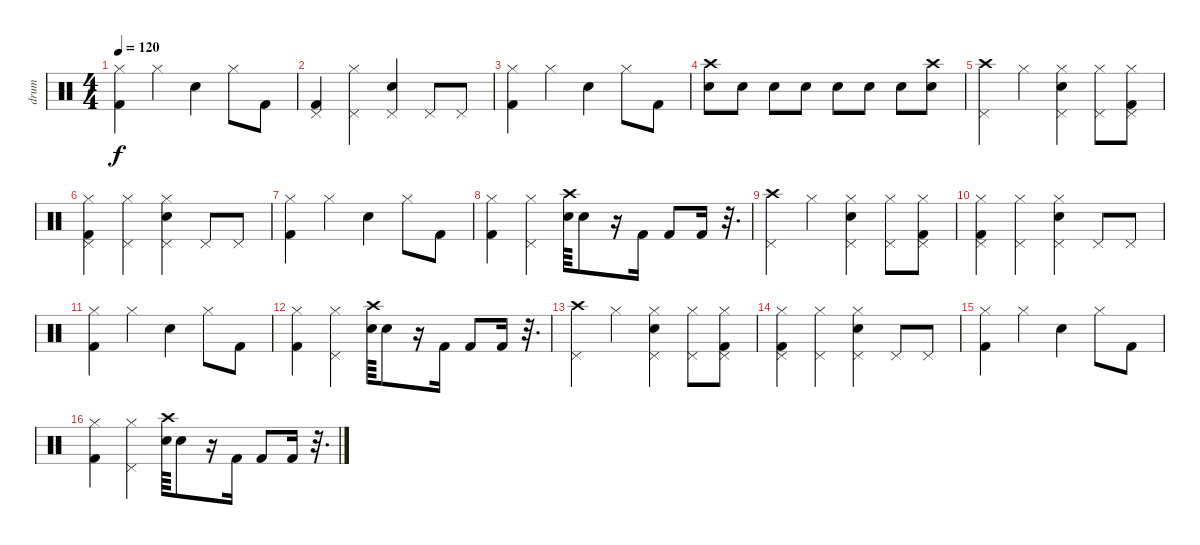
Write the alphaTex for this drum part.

\track ("drum" "drum") {instrument percussion}
\staff {score}
\articulation defaults
\ts (4 4)
\tempo 120
\clef neutral
\ks c
("Hi-Hat (closed)" "Kick (hit) 2").4{dy f} "Hi-Hat (closed)".4 "Snare (hit) 2".4 "Hi-Hat (closed)".8 "Kick (hit) 2".8 |
("Kick (hit) 2" "Pedal Hi-Hat (hit)").4 ("Hi-Hat (closed)" "Pedal Hi-Hat (hit)").4 ("Snare (hit) 2" "Pedal Hi-Hat (hit)").4 "Pedal Hi-Hat (hit)".8 "Pedal Hi-Hat (hit)".8 |
("Hi-Hat (closed)" "Kick (hit) 2").4 "Hi-Hat (closed)".4 "Snare (hit) 2".4 "Hi-Hat (closed)".8 "Kick (hit) 2".8 |
("Crash high (hit)" "Electric Snare (hit)").8 "Electric Snare (hit)".8 "Electric Snare (hit)".8 "Electric Snare (hit)".8 "Electric Snare (hit)".8 "Electric Snare (hit)".8 "Electric Snare (hit)".8 ("Crash high (hit)" "Electric Snare (hit)").8 |
("Crash high (hit)" "Pedal Hi-Hat (hit)").4 "Hi-Hat (closed)".4 ("Snare (hit) 2" "Pedal Hi-Hat (hit)" "Hi-Hat (closed)").4 ("Hi-Hat (closed)" "Pedal Hi-Hat (hit)").8 ("Kick (hit) 2" "Pedal Hi-Hat (hit)" "Hi-Hat (closed)").8 |
("Kick (hit) 2" "Pedal Hi-Hat (hit)" "Hi-Hat (closed)").4 ("Hi-Hat (closed)" "Pedal Hi-Hat (hit)").4 ("Snare (hit) 2" "Pedal Hi-Hat (hit)" "Hi-Hat (closed)").4 "Pedal Hi-Hat (hit)".8 "Pedal Hi-Hat (hit)".8 |
("Hi-Hat (closed)" "Kick (hit) 2").4 "Hi-Hat (closed)".4 "Snare (hit) 2".4 "Hi-Hat (closed)".8 "Kick (hit) 2".8 |
("Hi-Hat (closed)" "Kick (hit) 2").4 ("Hi-Hat (closed)" "Pedal Hi-Hat (hit)").4 ("Crash high (hit)" "Snare (hit) 2").64 "Snare (hit) 2".8 r.16 "Kick (hit) 2".16 "Kick (hit) 2".8 "Kick (hit) 2".16 r.32{d} |
("Crash high (hit)" "Pedal Hi-Hat (hit)").4 "Hi-Hat (closed)".4 ("Snare (hit) 2" "Pedal Hi-Hat (hit)" "Hi-Hat (closed)").4 ("Hi-Hat (closed)" "Pedal Hi-Hat (hit)").8 ("Kick (hit) 2" "Pedal Hi-Hat (hit)" "Hi-Hat (closed)").8 |
("Kick (hit) 2" "Pedal Hi-Hat (hit)" "Hi-Hat (closed)").4 ("Hi-Hat (closed)" "Pedal Hi-Hat (hit)").4 ("Snare (hit) 2" "Pedal Hi-Hat (hit)" "Hi-Hat (closed)").4 "Pedal Hi-Hat (hit)".8 "Pedal Hi-Hat (hit)".8 |
("Hi-Hat (closed)" "Kick (hit) 2").4 "Hi-Hat (closed)".4 "Snare (hit) 2".4 "Hi-Hat (closed)".8 "Kick (hit) 2".8 |
("Hi-Hat (closed)" "Kick (hit) 2").4 ("Hi-Hat (closed)" "Pedal Hi-Hat (hit)").4 ("Crash high (hit)" "Snare (hit) 2").64 "Snare (hit) 2".8 r.16 "Kick (hit) 2".16 "Kick (hit) 2".8 "Kick (hit) 2".16 r.32{d} |
("Crash high (hit)" "Pedal Hi-Hat (hit)").4 "Hi-Hat (closed)".4 ("Snare (hit) 2" "Pedal Hi-Hat (hit)" "Hi-Hat (closed)").4 ("Hi-Hat (closed)" "Pedal Hi-Hat (hit)").8 ("Kick (hit) 2" "Pedal Hi-Hat (hit)" "Hi-Hat (closed)").8 |
("Kick (hit) 2" "Pedal Hi-Hat (hit)" "Hi-Hat (closed)").4 ("Hi-Hat (closed)" "Pedal Hi-Hat (hit)").4 ("Snare (hit) 2" "Pedal Hi-Hat (hit)" "Hi-Hat (closed)").4 "Pedal Hi-Hat (hit)".8 "Pedal Hi-Hat (hit)".8 |
("Hi-Hat (closed)" "Kick (hit) 2").4 "Hi-Hat (closed)".4 "Snare (hit) 2".4 "Hi-Hat (closed)".8 "Kick (hit) 2".8 |
("Hi-Hat (closed)" "Kick (hit) 2").4 ("Hi-Hat (closed)" "Pedal Hi-Hat (hit)").4 ("Crash high (hit)" "Snare (hit) 2").64 "Snare (hit) 2".8 r.16 "Kick (hit) 2".16 "Kick (hit) 2".8 "Kick (hit) 2".16 r.32{d}
